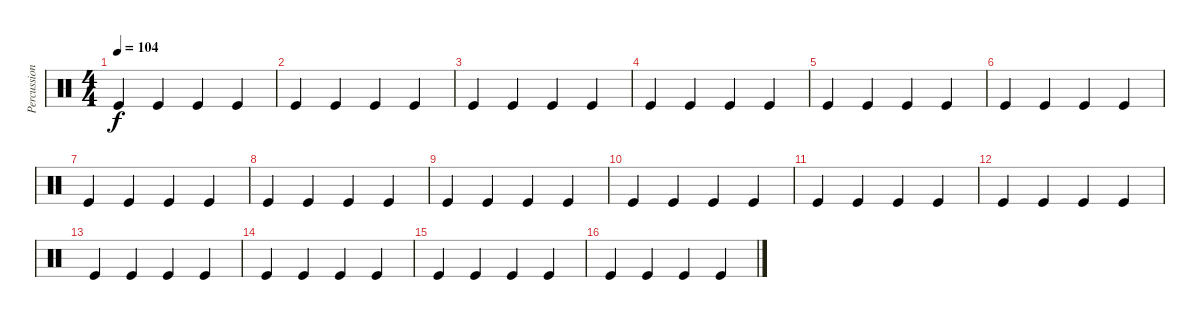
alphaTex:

\track ("Percussioni" "Percussion") {instrument percussion}
\staff {score}
\articulation defaults
\ts (4 4)
\tempo 104
\clef neutral
\ks c "Kick (hit)".4{dy f} "Kick (hit)".4 "Kick (hit)".4 "Kick (hit)".4
|
"Kick (hit)".4 "Kick (hit)".4 "Kick (hit)".4 "Kick (hit)".4 |
"Kick (hit)".4 "Kick (hit)".4 "Kick (hit)".4 "Kick (hit)".4 |
"Kick (hit)".4 "Kick (hit)".4 "Kick (hit)".4 "Kick (hit)".4 |
"Kick (hit)".4 "Kick (hit)".4 "Kick (hit)".4 "Kick (hit)".4 |
"Kick (hit)".4 "Kick (hit)".4 "Kick (hit)".4 "Kick (hit)".4 |
"Kick (hit)".4 "Kick (hit)".4 "Kick (hit)".4 "Kick (hit)".4 |
"Kick (hit)".4 "Kick (hit)".4 "Kick (hit)".4 "Kick (hit)".4 |
"Kick (hit)".4 "Kick (hit)".4 "Kick (hit)".4 "Kick (hit)".4 |
"Kick (hit)".4 "Kick (hit)".4 "Kick (hit)".4 "Kick (hit)".4 |
"Kick (hit)".4 "Kick (hit)".4 "Kick (hit)".4 "Kick (hit)".4 |
"Kick (hit)".4 "Kick (hit)".4 "Kick (hit)".4 "Kick (hit)".4 |
"Kick (hit)".4 "Kick (hit)".4 "Kick (hit)".4 "Kick (hit)".4 |
"Kick (hit)".4 "Kick (hit)".4 "Kick (hit)".4 "Kick (hit)".4 |
"Kick (hit)".4 "Kick (hit)".4 "Kick (hit)".4 "Kick (hit)".4 |
"Kick (hit)".4 "Kick (hit)".4 "Kick (hit)".4 "Kick (hit)".4
